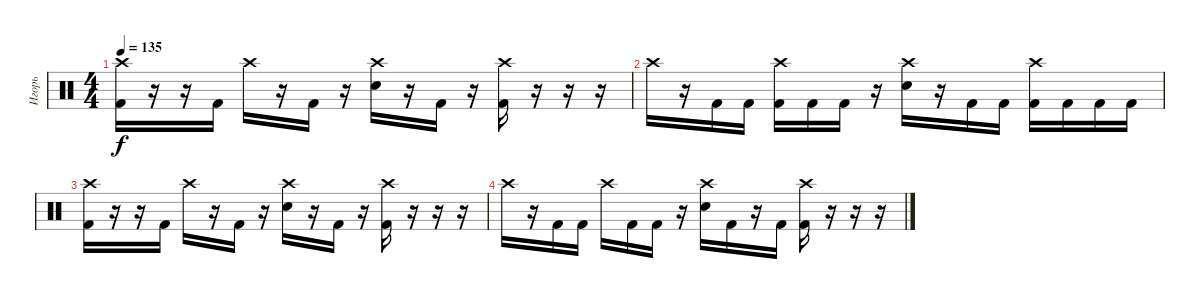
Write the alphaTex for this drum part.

\track ("Игорь" "Игорь") {instrument percussion}
\staff {score}
\articulation defaults
\ts (4 4)
\tempo 135
\clef neutral
\ks c
("Crash high (hit)" "Kick (hit) 2").16{dy f} r.16 r.16 "Kick (hit) 2".16 "Crash high (hit)".16 r.16 "Kick (hit) 2".16 r.16 ("Crash high (hit)" "Electric Snare (hit)").16 r.16 "Kick (hit) 2".16 r.16 ("Crash high (hit)" "Kick (hit) 2").16 r.16 r.16 r.16 |
"Crash high (hit)".16 r.16 "Kick (hit) 2".16 "Kick (hit) 2".16 ("Crash high (hit)" "Kick (hit) 2").16 "Kick (hit) 2".16 "Kick (hit) 2".16 r.16 ("Crash high (hit)" "Electric Snare (hit)").16 r.16 "Kick (hit) 2".16 "Kick (hit) 2".16 ("Crash high (hit)" "Kick (hit) 2").16 "Kick (hit) 2".16 "Kick (hit) 2".16 "Kick (hit) 2".16 |
("Crash high (hit)" "Kick (hit) 2").16 r.16 r.16 "Kick (hit) 2".16 "Crash high (hit)".16 r.16 "Kick (hit) 2".16 r.16 ("Crash high (hit)" "Electric Snare (hit)").16 r.16 "Kick (hit) 2".16 r.16 ("Crash high (hit)" "Kick (hit) 2").16 r.16 r.16 r.16 |
"Crash high (hit)".16 r.16 "Kick (hit) 2".16 "Kick (hit) 2".16 "Crash high (hit)".16 "Kick (hit) 2".16 "Kick (hit) 2".16 r.16 ("Crash high (hit)" "Electric Snare (hit)").16 "Kick (hit) 2".16 r.16 "Kick (hit) 2".16 ("Crash high (hit)" "Kick (hit) 2").16 r.16 r.16 r.16
